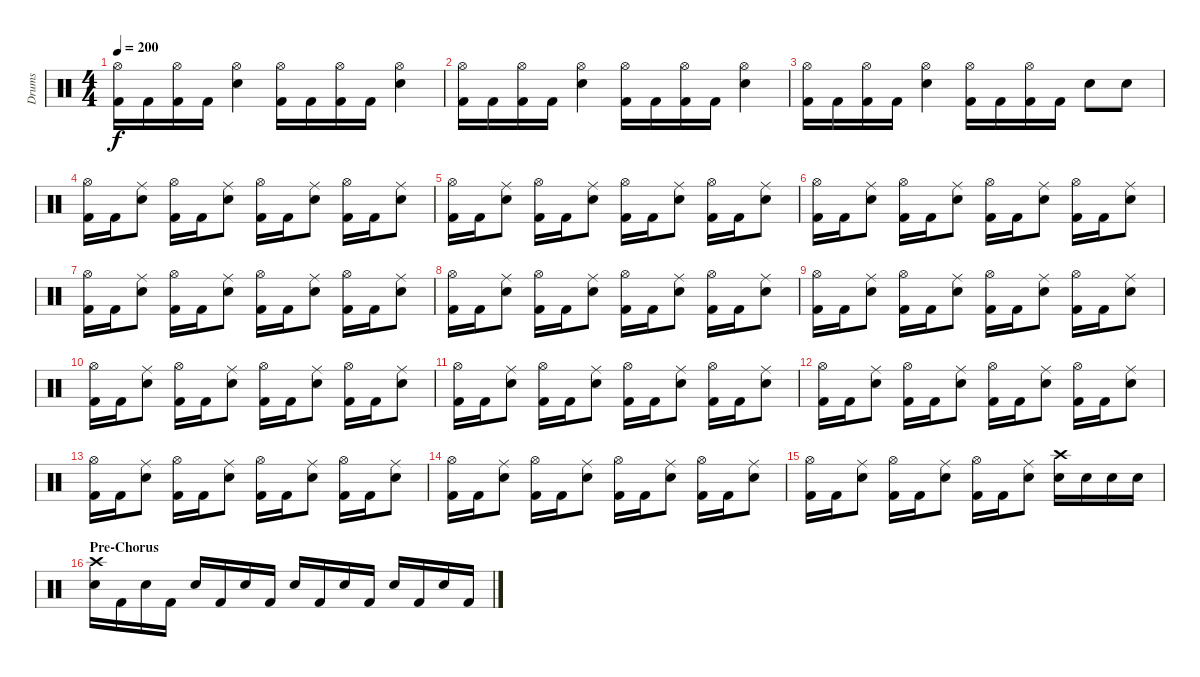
\track ("Drums" "Drums") {instrument percussion}
\staff {score}
\articulation defaults
\ts (4 4)
\tempo 200
\clef neutral
\ks c
("Hi-Hat (open)" "Kick (hit) 2").16{dy f} "Kick (hit) 2".16 ("Hi-Hat (open)" "Kick (hit) 2").16 "Kick (hit) 2".16 ("Hi-Hat (open)" "Snare (hit) 2").4 ("Hi-Hat (open)" "Kick (hit) 2").16 "Kick (hit) 2".16 ("Hi-Hat (open)" "Kick (hit) 2").16 "Kick (hit) 2".16 ("Hi-Hat (open)" "Snare (hit) 2").4 |
("Hi-Hat (open)" "Kick (hit) 2").16 "Kick (hit) 2".16 ("Hi-Hat (open)" "Kick (hit) 2").16 "Kick (hit) 2".16 ("Hi-Hat (open)" "Snare (hit) 2").4 ("Hi-Hat (open)" "Kick (hit) 2").16 "Kick (hit) 2".16 ("Hi-Hat (open)" "Kick (hit) 2").16 "Kick (hit) 2".16 ("Hi-Hat (open)" "Snare (hit) 2").4 |
("Hi-Hat (open)" "Kick (hit) 2").16 "Kick (hit) 2".16 ("Hi-Hat (open)" "Kick (hit) 2").16 "Kick (hit) 2".16 ("Hi-Hat (open)" "Snare (hit) 2").4 ("Hi-Hat (open)" "Kick (hit) 2").16 "Kick (hit) 2".16 ("Hi-Hat (open)" "Kick (hit) 2").16 "Kick (hit) 2".16 "Snare (hit) 2".8 "Snare (hit) 2".8 |
("Hi-Hat (open)" "Kick (hit) 2").16 "Kick (hit) 2".16 ("Ride (middle)" "Snare (hit) 2").8 ("Hi-Hat (open)" "Kick (hit) 2").16 "Kick (hit) 2".16 ("Ride (middle)" "Snare (hit) 2").8 ("Hi-Hat (open)" "Kick (hit) 2").16 "Kick (hit) 2".16 ("Ride (middle)" "Snare (hit) 2").8 ("Hi-Hat (open)" "Kick (hit) 2").16 "Kick (hit) 2".16 ("Ride (middle)" "Snare (hit) 2").8 |
("Hi-Hat (open)" "Kick (hit) 2").16 "Kick (hit) 2".16 ("Ride (middle)" "Snare (hit) 2").8 ("Hi-Hat (open)" "Kick (hit) 2").16 "Kick (hit) 2".16 ("Ride (middle)" "Snare (hit) 2").8 ("Hi-Hat (open)" "Kick (hit) 2").16 "Kick (hit) 2".16 ("Ride (middle)" "Snare (hit) 2").8 ("Hi-Hat (open)" "Kick (hit) 2").16 "Kick (hit) 2".16 ("Ride (middle)" "Snare (hit) 2").8 |
("Hi-Hat (open)" "Kick (hit) 2").16 "Kick (hit) 2".16 ("Ride (middle)" "Snare (hit) 2").8 ("Hi-Hat (open)" "Kick (hit) 2").16 "Kick (hit) 2".16 ("Ride (middle)" "Snare (hit) 2").8 ("Hi-Hat (open)" "Kick (hit) 2").16 "Kick (hit) 2".16 ("Ride (middle)" "Snare (hit) 2").8 ("Hi-Hat (open)" "Kick (hit) 2").16 "Kick (hit) 2".16 ("Ride (middle)" "Snare (hit) 2").8 |
("Hi-Hat (open)" "Kick (hit) 2").16 "Kick (hit) 2".16 ("Ride (middle)" "Snare (hit) 2").8 ("Hi-Hat (open)" "Kick (hit) 2").16 "Kick (hit) 2".16 ("Ride (middle)" "Snare (hit) 2").8 ("Hi-Hat (open)" "Kick (hit) 2").16 "Kick (hit) 2".16 ("Ride (middle)" "Snare (hit) 2").8 ("Hi-Hat (open)" "Kick (hit) 2").16 "Kick (hit) 2".16 ("Ride (middle)" "Snare (hit) 2").8 |
("Hi-Hat (open)" "Kick (hit) 2").16 "Kick (hit) 2".16 ("Ride (middle)" "Snare (hit) 2").8 ("Hi-Hat (open)" "Kick (hit) 2").16 "Kick (hit) 2".16 ("Ride (middle)" "Snare (hit) 2").8 ("Hi-Hat (open)" "Kick (hit) 2").16 "Kick (hit) 2".16 ("Ride (middle)" "Snare (hit) 2").8 ("Hi-Hat (open)" "Kick (hit) 2").16 "Kick (hit) 2".16 ("Ride (middle)" "Snare (hit) 2").8 |
("Hi-Hat (open)" "Kick (hit) 2").16 "Kick (hit) 2".16 ("Ride (middle)" "Snare (hit) 2").8 ("Hi-Hat (open)" "Kick (hit) 2").16 "Kick (hit) 2".16 ("Ride (middle)" "Snare (hit) 2").8 ("Hi-Hat (open)" "Kick (hit) 2").16 "Kick (hit) 2".16 ("Ride (middle)" "Snare (hit) 2").8 ("Hi-Hat (open)" "Kick (hit) 2").16 "Kick (hit) 2".16 ("Ride (middle)" "Snare (hit) 2").8 |
("Hi-Hat (open)" "Kick (hit) 2").16 "Kick (hit) 2".16 ("Ride (middle)" "Snare (hit) 2").8 ("Hi-Hat (open)" "Kick (hit) 2").16 "Kick (hit) 2".16 ("Ride (middle)" "Snare (hit) 2").8 ("Hi-Hat (open)" "Kick (hit) 2").16 "Kick (hit) 2".16 ("Ride (middle)" "Snare (hit) 2").8 ("Hi-Hat (open)" "Kick (hit) 2").16 "Kick (hit) 2".16 ("Ride (middle)" "Snare (hit) 2").8 |
("Hi-Hat (open)" "Kick (hit) 2").16 "Kick (hit) 2".16 ("Ride (middle)" "Snare (hit) 2").8 ("Hi-Hat (open)" "Kick (hit) 2").16 "Kick (hit) 2".16 ("Ride (middle)" "Snare (hit) 2").8 ("Hi-Hat (open)" "Kick (hit) 2").16 "Kick (hit) 2".16 ("Ride (middle)" "Snare (hit) 2").8 ("Hi-Hat (open)" "Kick (hit) 2").16 "Kick (hit) 2".16 ("Ride (middle)" "Snare (hit) 2").8 |
("Hi-Hat (open)" "Kick (hit) 2").16 "Kick (hit) 2".16 ("Ride (middle)" "Snare (hit) 2").8 ("Hi-Hat (open)" "Kick (hit) 2").16 "Kick (hit) 2".16 ("Ride (middle)" "Snare (hit) 2").8 ("Hi-Hat (open)" "Kick (hit) 2").16 "Kick (hit) 2".16 ("Ride (middle)" "Snare (hit) 2").8 ("Hi-Hat (open)" "Kick (hit) 2").16 "Kick (hit) 2".16 ("Ride (middle)" "Snare (hit) 2").8 |
("Hi-Hat (open)" "Kick (hit) 2").16 "Kick (hit) 2".16 ("Ride (middle)" "Snare (hit) 2").8 ("Hi-Hat (open)" "Kick (hit) 2").16 "Kick (hit) 2".16 ("Ride (middle)" "Snare (hit) 2").8 ("Hi-Hat (open)" "Kick (hit) 2").16 "Kick (hit) 2".16 ("Ride (middle)" "Snare (hit) 2").8 ("Hi-Hat (open)" "Kick (hit) 2").16 "Kick (hit) 2".16 ("Ride (middle)" "Snare (hit) 2").8 |
("Hi-Hat (open)" "Kick (hit) 2").16 "Kick (hit) 2".16 ("Ride (middle)" "Snare (hit) 2").8 ("Hi-Hat (open)" "Kick (hit) 2").16 "Kick (hit) 2".16 ("Ride (middle)" "Snare (hit) 2").8 ("Hi-Hat (open)" "Kick (hit) 2").16 "Kick (hit) 2".16 ("Ride (middle)" "Snare (hit) 2").8 ("Hi-Hat (open)" "Kick (hit) 2").16 "Kick (hit) 2".16 ("Ride (middle)" "Snare (hit) 2").8 |
("Hi-Hat (open)" "Kick (hit) 2").16 "Kick (hit) 2".16 ("Ride (middle)" "Snare (hit) 2").8 ("Hi-Hat (open)" "Kick (hit) 2").16 "Kick (hit) 2".16 ("Ride (middle)" "Snare (hit) 2").8 ("Hi-Hat (open)" "Kick (hit) 2").16 "Kick (hit) 2".16 ("Ride (middle)" "Snare (hit) 2").8 ("Crash high (hit)" "Snare (hit) 2").16 "Snare (hit) 2".16 "Snare (hit) 2".16 "Snare (hit) 2".16 |
\section ("" "Pre-Chorus")
("Crash high (hit)" "Snare (hit) 2").16 "Kick (hit) 2".16 "Snare (hit) 2".16 "Kick (hit) 2".16 "Snare (hit) 2".16 "Kick (hit) 2".16 "Snare (hit) 2".16 "Kick (hit) 2".16 "Snare (hit) 2".16 "Kick (hit) 2".16 "Snare (hit) 2".16 "Kick (hit) 2".16 "Snare (hit) 2".16 "Kick (hit) 2".16 "Snare (hit) 2".16 "Kick (hit) 2".16
